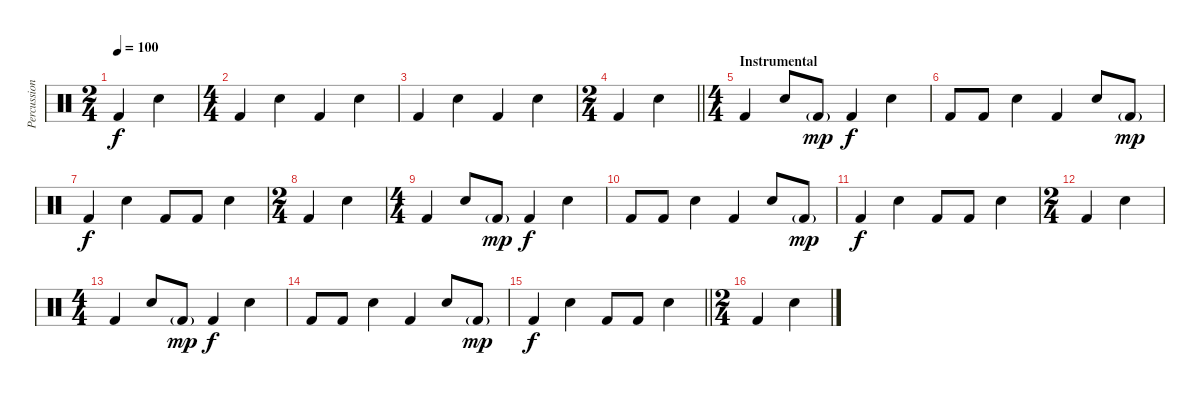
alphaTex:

\track ("Percussion" "Percussion") {instrument percussion}
\staff {score}
\articulation defaults
\ts (2 4)
\tempo 100
\clef neutral
\ks c "Kick (hit) 2".4{dy f} "Snare (hit) 2".4
|
\ts (4 4)
"Kick (hit) 2".4 "Snare (hit) 2".4 "Kick (hit) 2".4 "Snare (hit) 2".4 |
"Kick (hit) 2".4 "Snare (hit) 2".4 "Kick (hit) 2".4 "Snare (hit) 2".4 |
\ts (2 4)
\barLineRight lightlight "Kick (hit) 2".4 "Snare (hit) 2".4
|
\ts (4 4)
\section ("" "Instrumental")
"Kick (hit) 2".4 "Snare (hit) 2".8 "Kick (hit) 2"{g}.8{dy mp} "Kick (hit) 2".4{dy f} "Snare (hit) 2".4 |
"Kick (hit) 2".8 "Kick (hit) 2".8 "Snare (hit) 2".4 "Kick (hit) 2".4 "Snare (hit) 2".8 "Kick (hit) 2"{g}.8{dy mp} |
"Kick (hit) 2".4{dy f} "Snare (hit) 2".4 "Kick (hit) 2".8 "Kick (hit) 2".8 "Snare (hit) 2".4 |
\ts (2 4)
"Kick (hit) 2".4 "Snare (hit) 2".4 |
\ts (4 4)
"Kick (hit) 2".4 "Snare (hit) 2".8 "Kick (hit) 2"{g}.8{dy mp} "Kick (hit) 2".4{dy f} "Snare (hit) 2".4 |
"Kick (hit) 2".8 "Kick (hit) 2".8 "Snare (hit) 2".4 "Kick (hit) 2".4 "Snare (hit) 2".8 "Kick (hit) 2"{g}.8{dy mp} |
"Kick (hit) 2".4{dy f} "Snare (hit) 2".4 "Kick (hit) 2".8 "Kick (hit) 2".8 "Snare (hit) 2".4 |
\ts (2 4)
"Kick (hit) 2".4 "Snare (hit) 2".4 |
\ts (4 4)
"Kick (hit) 2".4 "Snare (hit) 2".8 "Kick (hit) 2"{g}.8{dy mp} "Kick (hit) 2".4{dy f} "Snare (hit) 2".4 |
"Kick (hit) 2".8 "Kick (hit) 2".8 "Snare (hit) 2".4 "Kick (hit) 2".4 "Snare (hit) 2".8 "Kick (hit) 2"{g}.8{dy mp} |
\barLineRight lightlight "Kick (hit) 2".4{dy f} "Snare (hit) 2".4 "Kick (hit) 2".8 "Kick (hit) 2".8 "Snare (hit) 2".4
|
\ts (2 4)
"Kick (hit) 2".4 "Snare (hit) 2".4
